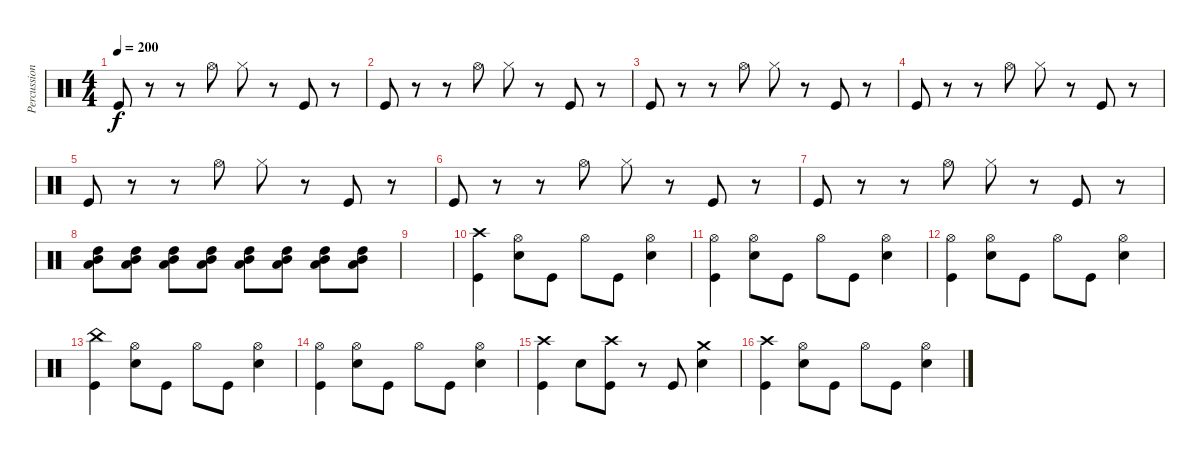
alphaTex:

\track ("Percussion" "Percussion") {instrument percussion}
\staff {score}
\articulation defaults
\ts (4 4)
\tempo 200
\clef neutral
\ks c "Kick (hit)".8{dy f}
r.8 r.8 "Hi-Hat (open)".8 "Hi-Hat (closed)".8 r.8 "Kick (hit)".8 r.8 |
"Kick (hit)".8 r.8 r.8 "Hi-Hat (open)".8 "Hi-Hat (closed)".8 r.8 "Kick (hit)".8 r.8 |
"Kick (hit)".8 r.8 r.8 "Hi-Hat (open)".8 "Hi-Hat (closed)".8 r.8 "Kick (hit)".8 r.8 |
"Kick (hit)".8 r.8 r.8 "Hi-Hat (open)".8 "Hi-Hat (closed)".8 r.8 "Kick (hit)".8 r.8 |
"Kick (hit)".8 r.8 r.8 "Hi-Hat (open)".8 "Hi-Hat (closed)".8 r.8 "Kick (hit)".8 r.8 |
"Kick (hit)".8 r.8 r.8 "Hi-Hat (open)".8 "Hi-Hat (closed)".8 r.8 "Kick (hit)".8 r.8 |
"Kick (hit)".8 r.8 r.8 "Hi-Hat (open)".8 "Hi-Hat (closed)".8 r.8 "Kick (hit)".8 r.8 |
("Low Tom (hit)" "Mid Tom (hit)" "High Tom (hit)").8 ("Low Tom (hit)" "Mid Tom (hit)" "High Tom (hit)").8 ("Low Tom (hit)" "Mid Tom (hit)" "High Tom (hit)").8 ("Low Tom (hit)" "Mid Tom (hit)" "High Tom (hit)").8 ("Low Tom (hit)" "Mid Tom (hit)" "High Tom (hit)").8 ("Low Tom (hit)" "Mid Tom (hit)" "High Tom (hit)").8 ("Low Tom (hit)" "Mid Tom (hit)" "High Tom (hit)").8 ("Low Tom (hit)" "Mid Tom (hit)" "High Tom (hit)").8 |
|
("Crash high (hit)" "Kick (hit)").4 ("Snare (hit) 2" "Hi-Hat (open)").8 "Kick (hit)".8 "Hi-Hat (open)".8 "Kick (hit)".8 ("Snare (hit) 2" "Hi-Hat (open)").4 |
("Kick (hit)" "Hi-Hat (open)").4 ("Snare (hit) 2" "Hi-Hat (open)").8 "Kick (hit)".8 "Hi-Hat (open)".8 "Kick (hit)".8 ("Snare (hit) 2" "Hi-Hat (open)").4 |
("Kick (hit)" "Hi-Hat (open)").4 ("Snare (hit) 2" "Hi-Hat (open)").8 "Kick (hit)".8 "Hi-Hat (open)".8 "Kick (hit)".8 ("Snare (hit) 2" "Hi-Hat (open)").4 |
("China (hit)" "Kick (hit)").4 ("Snare (hit) 2" "Hi-Hat (open)").8 "Kick (hit)".8 "Hi-Hat (open)".8 "Kick (hit)".8 ("Snare (hit) 2" "Hi-Hat (open)").4 |
("Kick (hit)" "Hi-Hat (open)").4 ("Snare (hit) 2" "Hi-Hat (open)").8 "Kick (hit)".8 "Hi-Hat (open)".8 "Kick (hit)".8 ("Snare (hit) 2" "Hi-Hat (open)").4 |
("Kick (hit)" "Crash high (hit)").4 "Snare (hit) 2".8 ("Kick (hit)" "Crash high (hit)").8 r.8 "Kick (hit)".8 ("Snare (hit) 2" "Crash medium (hit)").4 |
("Kick (hit)" "Crash high (hit)").4 ("Snare (hit) 2" "Hi-Hat (open)").8 "Kick (hit)".8 "Hi-Hat (open)".8 "Kick (hit)".8 ("Snare (hit) 2" "Hi-Hat (open)").4
